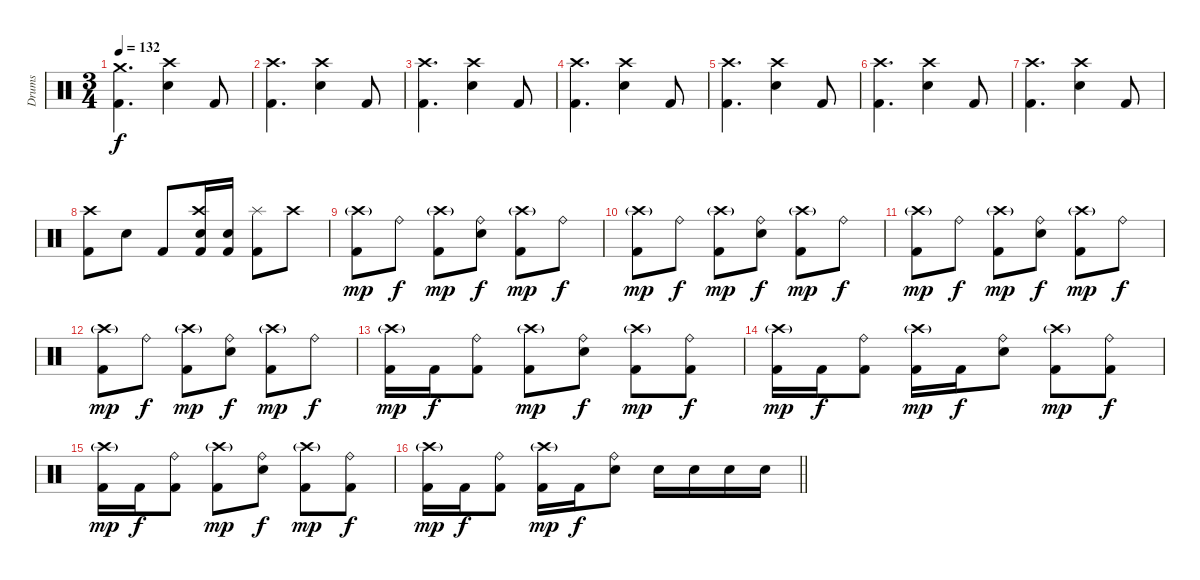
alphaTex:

\track ("Drums" "Drums") {instrument percussion}
\staff {score}
\articulation defaults
\ts (3 4)
\tempo 132
\clef neutral
\ks c
("Crash medium (hit)" "Kick (hit) 2").4{d dy f} ("Crash high (hit)" "Snare (hit) 2").4 "Kick (hit) 2".8 |
("Crash high (hit)" "Kick (hit) 2").4{d} ("Crash high (hit)" "Snare (hit) 2").4 "Kick (hit) 2".8 |
("Crash high (hit)" "Kick (hit) 2").4{d} ("Crash high (hit)" "Snare (hit) 2").4 "Kick (hit) 2".8 |
("Crash high (hit)" "Kick (hit) 2").4{d} ("Crash high (hit)" "Snare (hit) 2").4 "Kick (hit) 2".8 |
("Crash high (hit)" "Kick (hit) 2").4{d} ("Crash high (hit)" "Snare (hit) 2").4 "Kick (hit) 2".8 |
("Crash high (hit)" "Kick (hit) 2").4{d} ("Crash high (hit)" "Snare (hit) 2").4 "Kick (hit) 2".8 |
("Crash high (hit)" "Kick (hit) 2").4{d} ("Crash high (hit)" "Snare (hit) 2").4 "Kick (hit) 2".8 |
("Crash high (hit)" "Kick (hit) 2").8 "Snare (hit) 2".8 "Kick (hit) 2".8 ("Crash high (hit)" "Snare (hit) 2" "Kick (hit) 2").16 ("Snare (hit) 2" "Kick (hit) 2").16 ("Splash (hit)" "Kick (hit) 2").8 "Crash high (hit)".8 |
("Crash high (hit)"{g} "Kick (hit) 2").8{dy mp} "Ride (bell)".8{dy f} ("Crash high (hit)"{g} "Kick (hit) 2").8{dy mp} ("Ride (bell)" "Snare (hit) 2").8{dy f} ("Crash high (hit)"{g} "Kick (hit) 2").8{dy mp} "Ride (bell)".8{dy f} |
("Crash high (hit)"{g} "Kick (hit) 2").8{dy mp} "Ride (bell)".8{dy f} ("Crash high (hit)"{g} "Kick (hit) 2").8{dy mp} ("Ride (bell)" "Snare (hit) 2").8{dy f} ("Crash high (hit)"{g} "Kick (hit) 2").8{dy mp} "Ride (bell)".8{dy f} |
("Crash high (hit)"{g} "Kick (hit) 2").8{dy mp} "Ride (bell)".8{dy f} ("Crash high (hit)"{g} "Kick (hit) 2").8{dy mp} ("Ride (bell)" "Snare (hit) 2").8{dy f} ("Crash high (hit)"{g} "Kick (hit) 2").8{dy mp} "Ride (bell)".8{dy f} |
("Crash high (hit)"{g} "Kick (hit) 2").8{dy mp} "Ride (bell)".8{dy f} ("Crash high (hit)"{g} "Kick (hit) 2").8{dy mp} ("Ride (bell)" "Snare (hit) 2").8{dy f} ("Crash high (hit)"{g} "Kick (hit) 2").8{dy mp} "Ride (bell)".8{dy f} |
("Crash high (hit)"{g} "Kick (hit) 2").16{dy mp} "Kick (hit) 2".16{dy f} ("Ride (bell)" "Kick (hit) 2").8 ("Crash high (hit)"{g} "Kick (hit) 2").8{dy mp} ("Ride (bell)" "Snare (hit) 2").8{dy f} ("Crash high (hit)"{g} "Kick (hit) 2").8{dy mp} ("Ride (bell)" "Kick (hit) 2").8{dy f} |
("Crash high (hit)"{g} "Kick (hit) 2").16{dy mp} "Kick (hit) 2".16{dy f} ("Ride (bell)" "Kick (hit) 2").8 ("Crash high (hit)"{g} "Kick (hit) 2").16{dy mp} "Kick (hit) 2".16{dy f} ("Ride (bell)" "Snare (hit) 2").8 ("Crash high (hit)"{g} "Kick (hit) 2").8{dy mp} ("Ride (bell)" "Kick (hit) 2").8{dy f} |
("Crash high (hit)"{g} "Kick (hit) 2").16{dy mp} "Kick (hit) 2".16{dy f} ("Ride (bell)" "Kick (hit) 2").8 ("Crash high (hit)"{g} "Kick (hit) 2").8{dy mp} ("Ride (bell)" "Snare (hit) 2").8{dy f} ("Crash high (hit)"{g} "Kick (hit) 2").8{dy mp} ("Ride (bell)" "Kick (hit) 2").8{dy f} |
\barLineRight lightlight
("Crash high (hit)"{g} "Kick (hit) 2").16{dy mp} "Kick (hit) 2".16{dy f} ("Ride (bell)" "Kick (hit) 2").8 ("Crash high (hit)"{g} "Kick (hit) 2").16{dy mp} "Kick (hit) 2".16{dy f} ("Ride (bell)" "Snare (hit) 2").8 "Snare (hit) 2".16 "Snare (hit) 2".16 "Snare (hit) 2".16 "Snare (hit) 2".16
